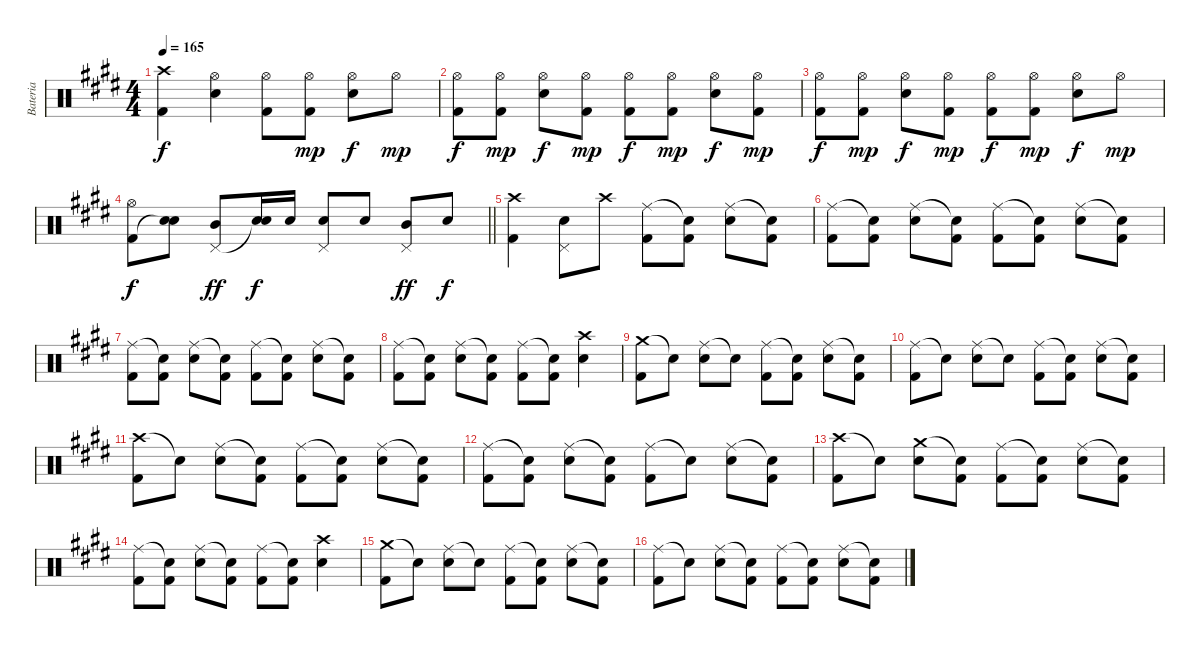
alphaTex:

\track ("Bateria" "Bateria") {instrument percussion}
\staff {score}
\articulation defaults
\ts (4 4)
\tempo 165
\clef neutral
\ks e
("Crash high (hit)" "Kick (hit) 2").4{dy f} ("Hi-Hat (open)" "Electric Snare (hit)").4 ("Hi-Hat (open)" "Kick (hit) 2").8 ("Hi-Hat (open)" "Kick (hit) 2").8{dy mp} ("Hi-Hat (open)" "Electric Snare (hit)").8{dy f} "Hi-Hat (open)".8{dy mp} |
("Hi-Hat (open)" "Kick (hit) 2").8{dy f} ("Hi-Hat (open)" "Kick (hit) 2").8{dy mp} ("Hi-Hat (open)" "Electric Snare (hit)").8{dy f} ("Hi-Hat (open)" "Kick (hit) 2").8{dy mp} ("Hi-Hat (open)" "Kick (hit) 2").8{dy f} ("Hi-Hat (open)" "Kick (hit) 2").8{dy mp} ("Hi-Hat (open)" "Electric Snare (hit)").8{dy f} ("Hi-Hat (open)" "Kick (hit) 2").8{dy mp} |
("Hi-Hat (open)" "Kick (hit) 2").8{dy f} ("Hi-Hat (open)" "Kick (hit) 2").8{dy mp} ("Hi-Hat (open)" "Electric Snare (hit)").8{dy f} ("Hi-Hat (open)" "Kick (hit) 2").8{dy mp} ("Hi-Hat (open)" "Kick (hit) 2").8{dy f} ("Hi-Hat (open)" "Kick (hit) 2").8{dy mp} ("Hi-Hat (open)" "Electric Snare (hit)").8{dy f} "Hi-Hat (open)".8{dy mp} |
\barLineRight lightlight
("Hi-Hat (open)" "Kick (hit) 2").8{dy f} ("Electric Snare (hit)" "Snare (hit)"{t}).8 ("Mid Tom (hit)" "Pedal Hi-Hat (hit)").8{dy ff} ("Electric Snare (hit)" "Snare (hit)"{t}).16{dy f} "Electric Snare (hit)".16 ("Electric Snare (hit)" "Pedal Hi-Hat (hit)").8 "Electric Snare (hit)".8 ("Mid Tom (hit)" "Pedal Hi-Hat (hit)").8{dy ff} "Electric Snare (hit)".8{dy f} |
("Crash high (hit)" "Kick (hit) 2").4 ("Pedal Hi-Hat (hit)" "Electric Snare (hit)").8 "Crash high (hit)".8 ("Ride (middle)" "Kick (hit) 2").8 ("Snare (hit)"{t} "Kick (hit) 2").8 ("Ride (middle)" "Electric Snare (hit)").8 ("Snare (hit)"{t} "Kick (hit) 2").8 |
("Ride (middle)" "Kick (hit) 2").8 ("Snare (hit)"{t} "Kick (hit) 2").8 ("Ride (middle)" "Electric Snare (hit)").8 ("Snare (hit)"{t} "Kick (hit) 2").8 ("Ride (middle)" "Kick (hit) 2").8 ("Snare (hit)"{t} "Kick (hit) 2").8 ("Ride (middle)" "Electric Snare (hit)").8 ("Snare (hit)"{t} "Kick (hit) 2").8 |
("Ride (middle)" "Kick (hit) 2").8 ("Snare (hit)"{t} "Kick (hit) 2").8 ("Ride (middle)" "Electric Snare (hit)").8 ("Snare (hit)"{t} "Kick (hit) 2").8 ("Ride (middle)" "Kick (hit) 2").8 ("Snare (hit)"{t} "Kick (hit) 2").8 ("Ride (middle)" "Electric Snare (hit)").8 ("Snare (hit)"{t} "Kick (hit) 2").8 |
("Ride (middle)" "Kick (hit) 2").8 ("Snare (hit)"{t} "Kick (hit) 2").8 ("Ride (middle)" "Electric Snare (hit)").8 ("Snare (hit)"{t} "Kick (hit) 2").8 ("Ride (middle)" "Kick (hit) 2").8 ("Snare (hit)"{t} "Kick (hit) 2").8 ("Crash high (hit)" "Electric Snare (hit)").4 |
("Crash medium (hit)" "Kick (hit) 2").8 "Snare (hit)"{t}.8 ("Ride (middle)" "Electric Snare (hit)").8 "Snare (hit)"{t}.8 ("Ride (middle)" "Kick (hit) 2").8 ("Snare (hit)"{t} "Kick (hit) 2").8 ("Ride (middle)" "Electric Snare (hit)").8 ("Snare (hit)"{t} "Kick (hit) 2").8 |
("Ride (middle)" "Kick (hit) 2").8 "Snare (hit)"{t}.8 ("Ride (middle)" "Electric Snare (hit)").8 "Snare (hit)"{t}.8 ("Ride (middle)" "Kick (hit) 2").8 ("Snare (hit)"{t} "Kick (hit) 2").8 ("Ride (middle)" "Electric Snare (hit)").8 ("Snare (hit)"{t} "Kick (hit) 2").8 |
("Crash high (hit)" "Kick (hit) 2").8 "Snare (hit)"{t}.8 ("Ride (middle)" "Electric Snare (hit)").8 ("Snare (hit)"{t} "Kick (hit) 2").8 ("Ride (middle)" "Kick (hit) 2").8 ("Snare (hit)"{t} "Kick (hit) 2").8 ("Ride (middle)" "Electric Snare (hit)").8 ("Snare (hit)"{t} "Kick (hit) 2").8 |
("Ride (middle)" "Kick (hit) 2").8 ("Snare (hit)"{t} "Kick (hit) 2").8 ("Ride (middle)" "Electric Snare (hit)").8 ("Snare (hit)"{t} "Kick (hit) 2").8 ("Ride (middle)" "Kick (hit) 2").8 "Snare (hit)"{t}.8 ("Ride (middle)" "Electric Snare (hit)").8 ("Snare (hit)"{t} "Kick (hit) 2").8 |
("Crash high (hit)" "Kick (hit) 2").8 "Snare (hit)"{t}.8 ("Crash medium (hit)" "Electric Snare (hit)").8 ("Snare (hit)"{t} "Kick (hit) 2").8 ("Ride (middle)" "Kick (hit) 2").8 ("Snare (hit)"{t} "Kick (hit) 2").8 ("Ride (middle)" "Electric Snare (hit)").8 ("Snare (hit)"{t} "Kick (hit) 2").8 |
("Ride (middle)" "Kick (hit) 2").8 ("Snare (hit)"{t} "Kick (hit) 2").8 ("Ride (middle)" "Electric Snare (hit)").8 ("Snare (hit)"{t} "Kick (hit) 2").8 ("Ride (middle)" "Kick (hit) 2").8 ("Snare (hit)"{t} "Kick (hit) 2").8 ("Crash high (hit)" "Electric Snare (hit)").4 |
("Crash medium (hit)" "Kick (hit) 2").8 "Snare (hit)"{t}.8 ("Ride (middle)" "Electric Snare (hit)").8 "Snare (hit)"{t}.8 ("Ride (middle)" "Kick (hit) 2").8 ("Snare (hit)"{t} "Kick (hit) 2").8 ("Ride (middle)" "Electric Snare (hit)").8 ("Snare (hit)"{t} "Kick (hit) 2").8 |
("Ride (middle)" "Kick (hit) 2").8 "Snare (hit)"{t}.8 ("Ride (middle)" "Electric Snare (hit)").8 ("Snare (hit)"{t} "Kick (hit) 2").8 ("Ride (middle)" "Kick (hit) 2").8 ("Snare (hit)"{t} "Kick (hit) 2").8 ("Ride (middle)" "Electric Snare (hit)").8 ("Snare (hit)"{t} "Kick (hit) 2").8
